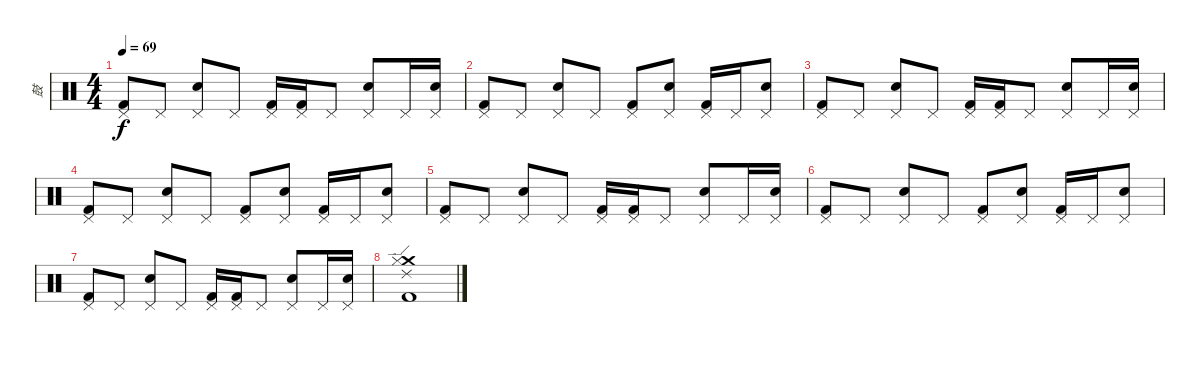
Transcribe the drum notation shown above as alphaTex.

\track ("鼓" "鼓") {instrument percussion}
\staff {score}
\articulation defaults
\ts (4 4)
\tempo 69
\clef neutral
\ks c
("Pedal Hi-Hat (hit)" "Kick (hit) 2").8{dy f} "Pedal Hi-Hat (hit)".8 ("Pedal Hi-Hat (hit)" "Electric Snare (hit)").8 "Pedal Hi-Hat (hit)".8 ("Pedal Hi-Hat (hit)" "Kick (hit) 2").16 ("Pedal Hi-Hat (hit)" "Kick (hit) 2").16 "Pedal Hi-Hat (hit)".8 ("Pedal Hi-Hat (hit)" "Electric Snare (hit)").8 "Pedal Hi-Hat (hit)".16 ("Pedal Hi-Hat (hit)" "Electric Snare (hit)").16 |
("Pedal Hi-Hat (hit)" "Kick (hit) 2").8 "Pedal Hi-Hat (hit)".8 ("Pedal Hi-Hat (hit)" "Electric Snare (hit)").8 "Pedal Hi-Hat (hit)".8 ("Pedal Hi-Hat (hit)" "Kick (hit) 2").8 ("Pedal Hi-Hat (hit)" "Electric Snare (hit)").8 ("Pedal Hi-Hat (hit)" "Kick (hit) 2").16 "Pedal Hi-Hat (hit)".16 ("Pedal Hi-Hat (hit)" "Electric Snare (hit)").8 |
("Pedal Hi-Hat (hit)" "Kick (hit) 2").8 "Pedal Hi-Hat (hit)".8 ("Pedal Hi-Hat (hit)" "Electric Snare (hit)").8 "Pedal Hi-Hat (hit)".8 ("Pedal Hi-Hat (hit)" "Kick (hit) 2").16 ("Pedal Hi-Hat (hit)" "Kick (hit) 2").16 "Pedal Hi-Hat (hit)".8 ("Pedal Hi-Hat (hit)" "Electric Snare (hit)").8 "Pedal Hi-Hat (hit)".16 ("Pedal Hi-Hat (hit)" "Electric Snare (hit)").16 |
("Pedal Hi-Hat (hit)" "Kick (hit) 2").8 "Pedal Hi-Hat (hit)".8 ("Pedal Hi-Hat (hit)" "Electric Snare (hit)").8 "Pedal Hi-Hat (hit)".8 ("Pedal Hi-Hat (hit)" "Kick (hit) 2").8 ("Pedal Hi-Hat (hit)" "Electric Snare (hit)").8 ("Pedal Hi-Hat (hit)" "Kick (hit) 2").16 "Pedal Hi-Hat (hit)".16 ("Pedal Hi-Hat (hit)" "Electric Snare (hit)").8 |
("Pedal Hi-Hat (hit)" "Kick (hit) 2").8 "Pedal Hi-Hat (hit)".8 ("Pedal Hi-Hat (hit)" "Electric Snare (hit)").8 "Pedal Hi-Hat (hit)".8 ("Pedal Hi-Hat (hit)" "Kick (hit) 2").16 ("Pedal Hi-Hat (hit)" "Kick (hit) 2").16 "Pedal Hi-Hat (hit)".8 ("Pedal Hi-Hat (hit)" "Electric Snare (hit)").8 "Pedal Hi-Hat (hit)".16 ("Pedal Hi-Hat (hit)" "Electric Snare (hit)").16 |
("Pedal Hi-Hat (hit)" "Kick (hit) 2").8 "Pedal Hi-Hat (hit)".8 ("Pedal Hi-Hat (hit)" "Electric Snare (hit)").8 "Pedal Hi-Hat (hit)".8 ("Pedal Hi-Hat (hit)" "Kick (hit) 2").8 ("Pedal Hi-Hat (hit)" "Electric Snare (hit)").8 ("Pedal Hi-Hat (hit)" "Kick (hit) 2").16 "Pedal Hi-Hat (hit)".16 ("Pedal Hi-Hat (hit)" "Electric Snare (hit)").8 |
("Pedal Hi-Hat (hit)" "Kick (hit) 2").8 "Pedal Hi-Hat (hit)".8 ("Pedal Hi-Hat (hit)" "Electric Snare (hit)").8 "Pedal Hi-Hat (hit)".8 ("Pedal Hi-Hat (hit)" "Kick (hit) 2").16 ("Pedal Hi-Hat (hit)" "Kick (hit) 2").16 "Pedal Hi-Hat (hit)".8 ("Pedal Hi-Hat (hit)" "Electric Snare (hit)").8 "Pedal Hi-Hat (hit)".16 ("Pedal Hi-Hat (hit)" "Electric Snare (hit)").16 |
("Ride (edge) 2" "Crash medium (hit)" "Hi-Hat (closed)" "Kick (hit) 2").1
